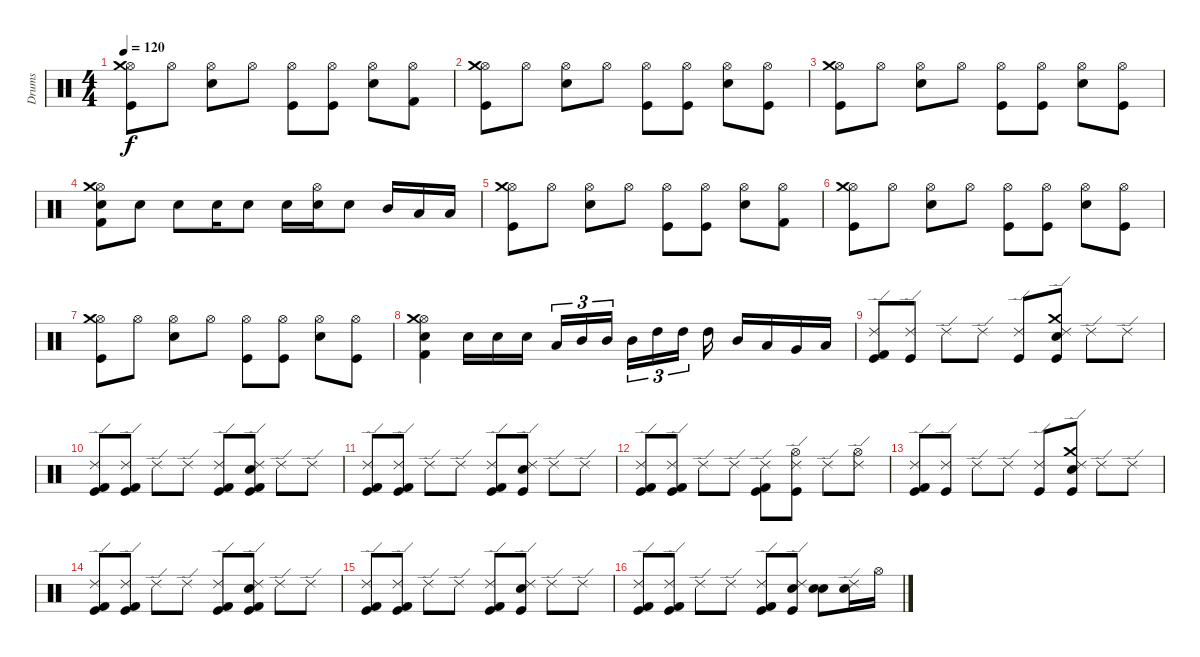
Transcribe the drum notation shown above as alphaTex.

\track ("Drums" "Drums") {instrument percussion}
\staff {score}
\articulation defaults
\ts (4 4)
\tempo 120
\clef neutral
\ks c
("Hi-Hat (open)" "Kick (hit)" "Crash medium (hit)").8{dy f} "Hi-Hat (open)".8 ("Hi-Hat (open)" "Snare (hit) 2").8 "Hi-Hat (open)".8 ("Hi-Hat (open)" "Kick (hit)").8 ("Hi-Hat (open)" "Kick (hit)").8 ("Hi-Hat (open)" "Snare (hit) 2").8 ("Hi-Hat (open)" "Kick (hit) 2").8 |
("Hi-Hat (open)" "Kick (hit)" "Crash medium (hit)").8 "Hi-Hat (open)".8 ("Hi-Hat (open)" "Snare (hit) 2").8 "Hi-Hat (open)".8 ("Hi-Hat (open)" "Kick (hit)").8 ("Hi-Hat (open)" "Kick (hit)").8 ("Hi-Hat (open)" "Snare (hit) 2").8 ("Hi-Hat (open)" "Kick (hit)").8 |
("Hi-Hat (open)" "Kick (hit)" "Crash medium (hit)").8 "Hi-Hat (open)".8 ("Hi-Hat (open)" "Snare (hit) 2").8 "Hi-Hat (open)".8 ("Hi-Hat (open)" "Kick (hit)").8 ("Hi-Hat (open)" "Kick (hit)").8 ("Hi-Hat (open)" "Snare (hit) 2").8 ("Hi-Hat (open)" "Kick (hit)").8 |
("Hi-Hat (open)" "Snare (hit) 2" "Kick (hit) 2" "Crash medium (hit)").8 "Snare (hit) 2".8 "Snare (hit) 2".8 "Snare (hit) 2".16 "Snare (hit) 2".8 "Snare (hit) 2".16 ("Hi-Hat (open)" "Snare (hit) 2").16 "Snare (hit) 2".8 "Mid Tom (hit)".16 "Low Tom (hit)".16 "Low Floor Tom (hit)".16 |
("Hi-Hat (open)" "Kick (hit)" "Crash medium (hit)").8 "Hi-Hat (open)".8 ("Hi-Hat (open)" "Snare (hit) 2").8 "Hi-Hat (open)".8 ("Hi-Hat (open)" "Kick (hit)").8 ("Hi-Hat (open)" "Kick (hit)").8 ("Hi-Hat (open)" "Snare (hit) 2").8 ("Hi-Hat (open)" "Kick (hit) 2").8 |
("Hi-Hat (open)" "Kick (hit)" "Crash medium (hit)").8 "Hi-Hat (open)".8 ("Hi-Hat (open)" "Snare (hit) 2").8 "Hi-Hat (open)".8 ("Hi-Hat (open)" "Kick (hit)").8 ("Hi-Hat (open)" "Kick (hit)").8 ("Hi-Hat (open)" "Snare (hit) 2").8 ("Hi-Hat (open)" "Kick (hit)").8 |
("Hi-Hat (open)" "Kick (hit)" "Crash medium (hit)").8 "Hi-Hat (open)".8 ("Hi-Hat (open)" "Snare (hit) 2").8 "Hi-Hat (open)".8 ("Hi-Hat (open)" "Kick (hit)").8 ("Hi-Hat (open)" "Kick (hit)").8 ("Hi-Hat (open)" "Snare (hit) 2").8 ("Hi-Hat (open)" "Kick (hit)").8 |
("Hi-Hat (open)" "Snare (hit) 2" "Kick (hit) 2" "Crash medium (hit)").4 "Snare (hit) 2".16 "Snare (hit) 2".16 "Snare (hit) 2".16 "Low Tom (hit)".16{tu (3 2)} "Mid Tom (hit)".16{tu (3 2)} "Mid Tom (hit)".16{tu (3 2)} "Mid Tom (hit)".16{tu (3 2)} "High Tom (hit)".16{tu (3 2)} "High Tom (hit)".16{tu (3 2)} "High Tom (hit)".16 "Mid Tom (hit)".16 "Low Tom (hit)".16 "Very Low Tom (hit)".16 "Low Floor Tom (hit)".16 |
("Ride (edge) 2" "Kick (hit) 2" "Kick (hit)").8 ("Ride (edge) 2" "Kick (hit)").8 "Ride (edge) 2".8 "Ride (edge) 2".8 ("Ride (edge) 2" "Kick (hit)").8 ("Ride (edge) 2" "Crash medium (hit)" "Snare (hit) 2" "Kick (hit)").8 "Ride (edge) 2".8 "Ride (edge) 2".8 |
("Ride (edge) 2" "Kick (hit) 2" "Kick (hit)").8 ("Ride (edge) 2" "Kick (hit) 2" "Kick (hit)").8 "Ride (edge) 2".8 "Ride (edge) 2".8 ("Ride (edge) 2" "Kick (hit) 2" "Kick (hit)").8 ("Ride (edge) 2" "Snare (hit) 2" "Kick (hit)" "Kick (hit) 2").8 "Ride (edge) 2".8 "Ride (edge) 2".8 |
("Ride (edge) 2" "Kick (hit) 2" "Kick (hit)").8 ("Ride (edge) 2" "Kick (hit) 2" "Kick (hit)").8 "Ride (edge) 2".8 "Ride (edge) 2".8 ("Ride (edge) 2" "Kick (hit) 2" "Kick (hit)").8 ("Ride (edge) 2" "Snare (hit) 2" "Kick (hit)").8 "Ride (edge) 2".8 "Ride (edge) 2".8 |
("Ride (edge) 2" "Kick (hit) 2" "Kick (hit)").8 ("Ride (edge) 2" "Kick (hit) 2" "Kick (hit)").8 "Ride (edge) 2".8 "Ride (edge) 2".8 ("Ride (edge) 2" "Kick (hit) 2" "Kick (hit)").8 ("Ride (edge) 2" "Hi-Hat (open)" "Kick (hit)").8 "Ride (edge) 2".8 ("Ride (edge) 2" "Hi-Hat (open)").8 |
("Ride (edge) 2" "Kick (hit) 2" "Kick (hit)").8 ("Ride (edge) 2" "Kick (hit)").8 "Ride (edge) 2".8 "Ride (edge) 2".8 ("Ride (edge) 2" "Kick (hit)").8 ("Ride (edge) 2" "Crash medium (hit)" "Snare (hit) 2" "Kick (hit)").8 "Ride (edge) 2".8 "Ride (edge) 2".8 |
("Ride (edge) 2" "Kick (hit) 2" "Kick (hit)").8 ("Ride (edge) 2" "Kick (hit) 2" "Kick (hit)").8 "Ride (edge) 2".8 "Ride (edge) 2".8 ("Ride (edge) 2" "Kick (hit) 2" "Kick (hit)").8 ("Ride (edge) 2" "Snare (hit) 2" "Kick (hit)" "Kick (hit) 2").8 "Ride (edge) 2".8 "Ride (edge) 2".8 |
("Ride (edge) 2" "Kick (hit) 2" "Kick (hit)").8 ("Ride (edge) 2" "Kick (hit) 2" "Kick (hit)").8 "Ride (edge) 2".8 "Ride (edge) 2".8 ("Ride (edge) 2" "Kick (hit) 2" "Kick (hit)").8 ("Ride (edge) 2" "Snare (hit) 2" "Kick (hit)").8 "Ride (edge) 2".8 "Ride (edge) 2".8 |
("Ride (edge) 2" "Kick (hit) 2" "Kick (hit)").8 ("Ride (edge) 2" "Kick (hit) 2" "Kick (hit)").8 "Ride (edge) 2".8 "Ride (edge) 2".8 ("Ride (edge) 2" "Kick (hit) 2" "Kick (hit)").8 ("Ride (edge) 2" "Snare (hit) 2" "Kick (hit)").8 ("Snare (hit) 2" "Snare (hit) 2").8 ("Ride (edge) 2" "Snare (hit) 2").16 "Hi-Hat (open)".16
